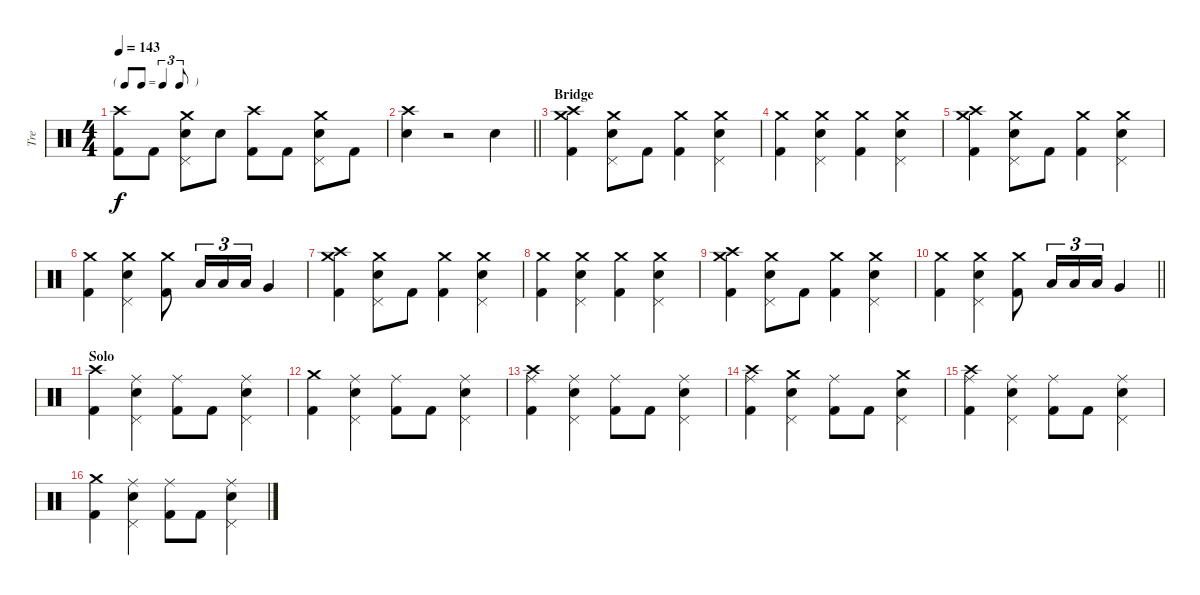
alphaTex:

\track ("Tre" "Tre") {instrument percussion}
\staff {score}
\articulation defaults
\ts (4 4)
\tf triplet8th
\tempo 143
\clef neutral
\ks c
("Crash high (hit)" "Kick (hit) 2").8{dy f} "Kick (hit) 2".8 ("Crash medium (hit)" "Snare (hit) 2" "Pedal Hi-Hat (hit)").8 "Snare (hit) 2".8 ("Crash high (hit)" "Kick (hit) 2").8 "Kick (hit) 2".8 ("Crash medium (hit)" "Snare (hit) 2" "Pedal Hi-Hat (hit)").8 "Kick (hit) 2".8 |
\barLineRight lightlight
("Crash high (hit)" "Snare (hit) 2").4 r.2 "Snare (hit) 2".4 |
\section ("" "Bridge")
("Crash medium (hit)" "Crash high (hit)" "Kick (hit) 2").4 ("Crash medium (hit)" "Snare (hit) 2" "Pedal Hi-Hat (hit)").8 "Kick (hit) 2".8 ("Crash medium (hit)" "Kick (hit) 2").4 ("Crash medium (hit)" "Snare (hit) 2" "Pedal Hi-Hat (hit)").4 |
("Crash medium (hit)" "Kick (hit) 2").4 ("Crash medium (hit)" "Snare (hit) 2" "Pedal Hi-Hat (hit)").4 ("Crash medium (hit)" "Kick (hit) 2").4 ("Crash medium (hit)" "Snare (hit) 2" "Pedal Hi-Hat (hit)").4 |
("Crash medium (hit)" "Crash high (hit)" "Kick (hit) 2").4 ("Crash medium (hit)" "Snare (hit) 2" "Pedal Hi-Hat (hit)").8 "Kick (hit) 2".8 ("Crash medium (hit)" "Kick (hit) 2").4 ("Crash medium (hit)" "Snare (hit) 2" "Pedal Hi-Hat (hit)").4 |
("Crash medium (hit)" "Kick (hit) 2").4 ("Crash medium (hit)" "Snare (hit) 2" "Pedal Hi-Hat (hit)").4 ("Crash medium (hit)" "Kick (hit) 2").8 "Low Tom (hit)".16{tu (3 2)} "Low Tom (hit)".16{tu (3 2)} "Low Tom (hit)".16{tu (3 2)} "Very Low Tom (hit)".4 |
("Crash medium (hit)" "Crash high (hit)" "Kick (hit) 2").4 ("Crash medium (hit)" "Snare (hit) 2" "Pedal Hi-Hat (hit)").8 "Kick (hit) 2".8 ("Crash medium (hit)" "Kick (hit) 2").4 ("Crash medium (hit)" "Snare (hit) 2" "Pedal Hi-Hat (hit)").4 |
("Crash medium (hit)" "Kick (hit) 2").4 ("Crash medium (hit)" "Snare (hit) 2" "Pedal Hi-Hat (hit)").4 ("Crash medium (hit)" "Kick (hit) 2").4 ("Crash medium (hit)" "Snare (hit) 2" "Pedal Hi-Hat (hit)").4 |
("Crash medium (hit)" "Crash high (hit)" "Kick (hit) 2").4 ("Crash medium (hit)" "Snare (hit) 2" "Pedal Hi-Hat (hit)").8 "Kick (hit) 2".8 ("Crash medium (hit)" "Kick (hit) 2").4 ("Crash medium (hit)" "Snare (hit) 2" "Pedal Hi-Hat (hit)").4 |
\barLineRight lightlight
("Crash medium (hit)" "Kick (hit) 2").4 ("Crash medium (hit)" "Snare (hit) 2" "Pedal Hi-Hat (hit)").4 ("Crash medium (hit)" "Kick (hit) 2").8 "Low Tom (hit)".16{tu (3 2)} "Low Tom (hit)".16{tu (3 2)} "Low Tom (hit)".16{tu (3 2)} "Very Low Tom (hit)".4 |
\section ("" "Solo")
("Crash high (hit)" "Kick (hit) 2").4 ("Ride (middle)" "Snare (hit) 2" "Pedal Hi-Hat (hit)").4 ("Ride (middle)" "Kick (hit) 2").8 "Kick (hit) 2".8 ("Ride (middle)" "Snare (hit) 2" "Pedal Hi-Hat (hit)").4 |
("Crash medium (hit)" "Kick (hit) 2").4 ("Ride (middle)" "Snare (hit) 2" "Pedal Hi-Hat (hit)").4 ("Ride (middle)" "Kick (hit) 2").8 "Kick (hit) 2".8 ("Ride (middle)" "Snare (hit) 2" "Pedal Hi-Hat (hit)").4 |
("Crash high (hit)" "Ride (middle)" "Kick (hit) 2").4 ("Ride (middle)" "Snare (hit) 2" "Pedal Hi-Hat (hit)").4 ("Ride (middle)" "Kick (hit) 2").8 "Kick (hit) 2".8 ("Ride (middle)" "Snare (hit) 2" "Pedal Hi-Hat (hit)").4 |
("Crash high (hit)" "Ride (middle)" "Kick (hit) 2").4 ("Crash medium (hit)" "Snare (hit) 2" "Pedal Hi-Hat (hit)").4 ("Ride (middle)" "Kick (hit) 2").8 "Kick (hit) 2".8 ("Crash medium (hit)" "Snare (hit) 2" "Pedal Hi-Hat (hit)").4 |
("Crash high (hit)" "Ride (middle)" "Kick (hit) 2").4 ("Ride (middle)" "Snare (hit) 2" "Pedal Hi-Hat (hit)").4 ("Ride (middle)" "Kick (hit) 2").8 "Kick (hit) 2".8 ("Ride (middle)" "Snare (hit) 2" "Pedal Hi-Hat (hit)").4 |
("Crash medium (hit)" "Kick (hit) 2").4 ("Ride (middle)" "Snare (hit) 2" "Pedal Hi-Hat (hit)").4 ("Ride (middle)" "Kick (hit) 2").8 "Kick (hit) 2".8 ("Ride (middle)" "Snare (hit) 2" "Pedal Hi-Hat (hit)").4
